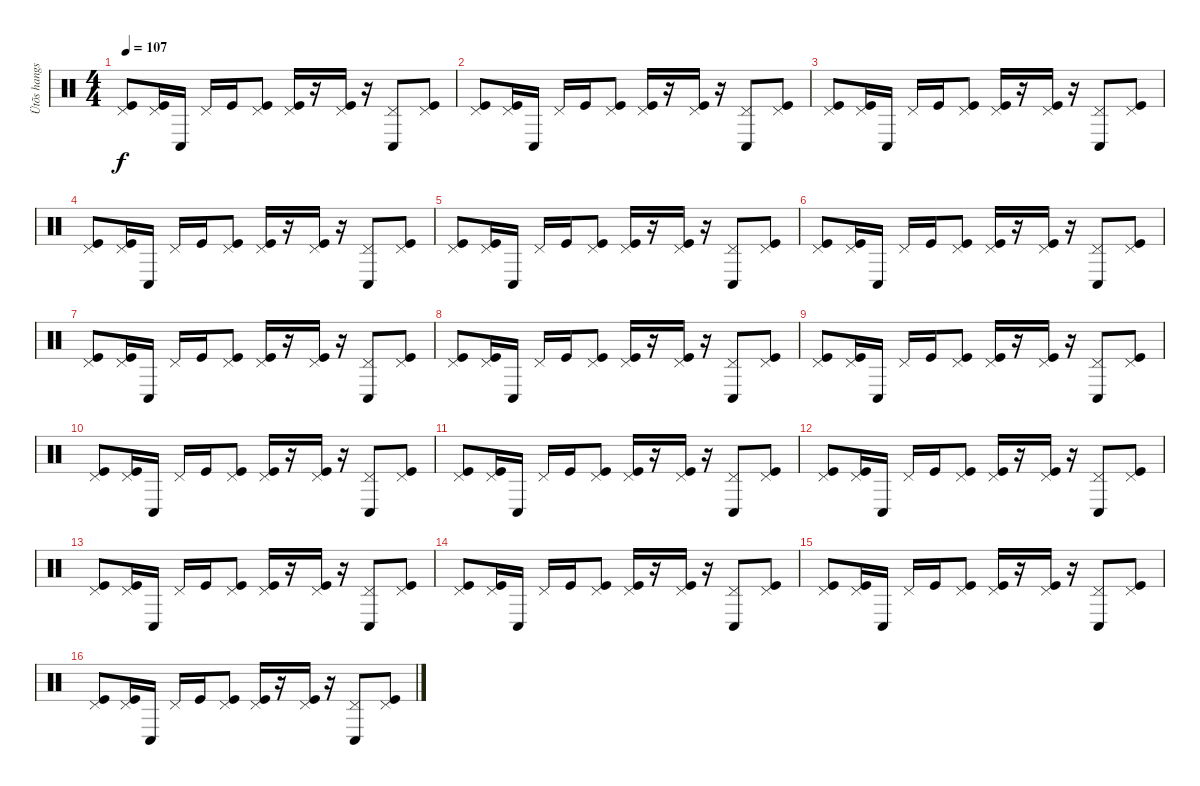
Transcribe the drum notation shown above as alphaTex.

\track ("Ütõs hangszer" "Ütõs hangs") {instrument percussion}
\staff {score}
\articulation defaults
\ts (4 4)
\tempo 107
\clef neutral
\ks c
("Pedal Hi-Hat (hit)" "Kick (hit)").8{dy f} ("Pedal Hi-Hat (hit)" "Kick (hit)").16 "Conga low (hit)".16 "Pedal Hi-Hat (hit)".16 "Kick (hit)".16 ("Pedal Hi-Hat (hit)" "Kick (hit)").8 ("Pedal Hi-Hat (hit)" "Kick (hit)").16 r.16 ("Pedal Hi-Hat (hit)" "Kick (hit)").16 r.16 ("Pedal Hi-Hat (hit)" "Conga low (hit)").8 ("Pedal Hi-Hat (hit)" "Kick (hit)").8 |
("Pedal Hi-Hat (hit)" "Kick (hit)").8 ("Pedal Hi-Hat (hit)" "Kick (hit)").16 "Conga low (hit)".16 "Pedal Hi-Hat (hit)".16 "Kick (hit)".16 ("Pedal Hi-Hat (hit)" "Kick (hit)").8 ("Pedal Hi-Hat (hit)" "Kick (hit)").16 r.16 ("Pedal Hi-Hat (hit)" "Kick (hit)").16 r.16 ("Pedal Hi-Hat (hit)" "Conga low (hit)").8 ("Pedal Hi-Hat (hit)" "Kick (hit)").8 |
("Pedal Hi-Hat (hit)" "Kick (hit)").8 ("Pedal Hi-Hat (hit)" "Kick (hit)").16 "Conga low (hit)".16 "Pedal Hi-Hat (hit)".16 "Kick (hit)".16 ("Pedal Hi-Hat (hit)" "Kick (hit)").8 ("Pedal Hi-Hat (hit)" "Kick (hit)").16 r.16 ("Pedal Hi-Hat (hit)" "Kick (hit)").16 r.16 ("Pedal Hi-Hat (hit)" "Conga low (hit)").8 ("Pedal Hi-Hat (hit)" "Kick (hit)").8 |
("Pedal Hi-Hat (hit)" "Kick (hit)").8 ("Pedal Hi-Hat (hit)" "Kick (hit)").16 "Conga low (hit)".16 "Pedal Hi-Hat (hit)".16 "Kick (hit)".16 ("Pedal Hi-Hat (hit)" "Kick (hit)").8 ("Pedal Hi-Hat (hit)" "Kick (hit)").16 r.16 ("Pedal Hi-Hat (hit)" "Kick (hit)").16 r.16 ("Pedal Hi-Hat (hit)" "Conga low (hit)").8 ("Pedal Hi-Hat (hit)" "Kick (hit)").8 |
("Pedal Hi-Hat (hit)" "Kick (hit)").8 ("Pedal Hi-Hat (hit)" "Kick (hit)").16 "Conga low (hit)".16 "Pedal Hi-Hat (hit)".16 "Kick (hit)".16 ("Pedal Hi-Hat (hit)" "Kick (hit)").8 ("Pedal Hi-Hat (hit)" "Kick (hit)").16 r.16 ("Pedal Hi-Hat (hit)" "Kick (hit)").16 r.16 ("Pedal Hi-Hat (hit)" "Conga low (hit)").8 ("Pedal Hi-Hat (hit)" "Kick (hit)").8 |
("Pedal Hi-Hat (hit)" "Kick (hit)").8 ("Pedal Hi-Hat (hit)" "Kick (hit)").16 "Conga low (hit)".16 "Pedal Hi-Hat (hit)".16 "Kick (hit)".16 ("Pedal Hi-Hat (hit)" "Kick (hit)").8 ("Pedal Hi-Hat (hit)" "Kick (hit)").16 r.16 ("Pedal Hi-Hat (hit)" "Kick (hit)").16 r.16 ("Pedal Hi-Hat (hit)" "Conga low (hit)").8 ("Pedal Hi-Hat (hit)" "Kick (hit)").8 |
("Pedal Hi-Hat (hit)" "Kick (hit)").8 ("Pedal Hi-Hat (hit)" "Kick (hit)").16 "Conga low (hit)".16 "Pedal Hi-Hat (hit)".16 "Kick (hit)".16 ("Pedal Hi-Hat (hit)" "Kick (hit)").8 ("Pedal Hi-Hat (hit)" "Kick (hit)").16 r.16 ("Pedal Hi-Hat (hit)" "Kick (hit)").16 r.16 ("Pedal Hi-Hat (hit)" "Conga low (hit)").8 ("Pedal Hi-Hat (hit)" "Kick (hit)").8 |
("Pedal Hi-Hat (hit)" "Kick (hit)").8 ("Pedal Hi-Hat (hit)" "Kick (hit)").16 "Conga low (hit)".16 "Pedal Hi-Hat (hit)".16 "Kick (hit)".16 ("Pedal Hi-Hat (hit)" "Kick (hit)").8 ("Pedal Hi-Hat (hit)" "Kick (hit)").16 r.16 ("Pedal Hi-Hat (hit)" "Kick (hit)").16 r.16 ("Pedal Hi-Hat (hit)" "Conga low (hit)").8 ("Pedal Hi-Hat (hit)" "Kick (hit)").8 |
("Pedal Hi-Hat (hit)" "Kick (hit)").8 ("Pedal Hi-Hat (hit)" "Kick (hit)").16 "Conga low (hit)".16 "Pedal Hi-Hat (hit)".16 "Kick (hit)".16 ("Pedal Hi-Hat (hit)" "Kick (hit)").8 ("Pedal Hi-Hat (hit)" "Kick (hit)").16 r.16 ("Pedal Hi-Hat (hit)" "Kick (hit)").16 r.16 ("Pedal Hi-Hat (hit)" "Conga low (hit)").8 ("Pedal Hi-Hat (hit)" "Kick (hit)").8 |
("Pedal Hi-Hat (hit)" "Kick (hit)").8 ("Pedal Hi-Hat (hit)" "Kick (hit)").16 "Conga low (hit)".16 "Pedal Hi-Hat (hit)".16 "Kick (hit)".16 ("Pedal Hi-Hat (hit)" "Kick (hit)").8 ("Pedal Hi-Hat (hit)" "Kick (hit)").16 r.16 ("Pedal Hi-Hat (hit)" "Kick (hit)").16 r.16 ("Pedal Hi-Hat (hit)" "Conga low (hit)").8 ("Pedal Hi-Hat (hit)" "Kick (hit)").8 |
("Pedal Hi-Hat (hit)" "Kick (hit)").8 ("Pedal Hi-Hat (hit)" "Kick (hit)").16 "Conga low (hit)".16 "Pedal Hi-Hat (hit)".16 "Kick (hit)".16 ("Pedal Hi-Hat (hit)" "Kick (hit)").8 ("Pedal Hi-Hat (hit)" "Kick (hit)").16 r.16 ("Pedal Hi-Hat (hit)" "Kick (hit)").16 r.16 ("Pedal Hi-Hat (hit)" "Conga low (hit)").8 ("Pedal Hi-Hat (hit)" "Kick (hit)").8 |
("Pedal Hi-Hat (hit)" "Kick (hit)").8 ("Pedal Hi-Hat (hit)" "Kick (hit)").16 "Conga low (hit)".16 "Pedal Hi-Hat (hit)".16 "Kick (hit)".16 ("Pedal Hi-Hat (hit)" "Kick (hit)").8 ("Pedal Hi-Hat (hit)" "Kick (hit)").16 r.16 ("Pedal Hi-Hat (hit)" "Kick (hit)").16 r.16 ("Pedal Hi-Hat (hit)" "Conga low (hit)").8 ("Pedal Hi-Hat (hit)" "Kick (hit)").8 |
("Pedal Hi-Hat (hit)" "Kick (hit)").8 ("Pedal Hi-Hat (hit)" "Kick (hit)").16 "Conga low (hit)".16 "Pedal Hi-Hat (hit)".16 "Kick (hit)".16 ("Pedal Hi-Hat (hit)" "Kick (hit)").8 ("Pedal Hi-Hat (hit)" "Kick (hit)").16 r.16 ("Pedal Hi-Hat (hit)" "Kick (hit)").16 r.16 ("Pedal Hi-Hat (hit)" "Conga low (hit)").8 ("Pedal Hi-Hat (hit)" "Kick (hit)").8 |
("Pedal Hi-Hat (hit)" "Kick (hit)").8 ("Pedal Hi-Hat (hit)" "Kick (hit)").16 "Conga low (hit)".16 "Pedal Hi-Hat (hit)".16 "Kick (hit)".16 ("Pedal Hi-Hat (hit)" "Kick (hit)").8 ("Pedal Hi-Hat (hit)" "Kick (hit)").16 r.16 ("Pedal Hi-Hat (hit)" "Kick (hit)").16 r.16 ("Pedal Hi-Hat (hit)" "Conga low (hit)").8 ("Pedal Hi-Hat (hit)" "Kick (hit)").8 |
("Pedal Hi-Hat (hit)" "Kick (hit)").8 ("Pedal Hi-Hat (hit)" "Kick (hit)").16 "Conga low (hit)".16 "Pedal Hi-Hat (hit)".16 "Kick (hit)".16 ("Pedal Hi-Hat (hit)" "Kick (hit)").8 ("Pedal Hi-Hat (hit)" "Kick (hit)").16 r.16 ("Pedal Hi-Hat (hit)" "Kick (hit)").16 r.16 ("Pedal Hi-Hat (hit)" "Conga low (hit)").8 ("Pedal Hi-Hat (hit)" "Kick (hit)").8 |
("Pedal Hi-Hat (hit)" "Kick (hit)").8 ("Pedal Hi-Hat (hit)" "Kick (hit)").16 "Conga low (hit)".16 "Pedal Hi-Hat (hit)".16 "Kick (hit)".16 ("Pedal Hi-Hat (hit)" "Kick (hit)").8 ("Pedal Hi-Hat (hit)" "Kick (hit)").16 r.16 ("Pedal Hi-Hat (hit)" "Kick (hit)").16 r.16 ("Pedal Hi-Hat (hit)" "Conga low (hit)").8 ("Pedal Hi-Hat (hit)" "Kick (hit)").8
